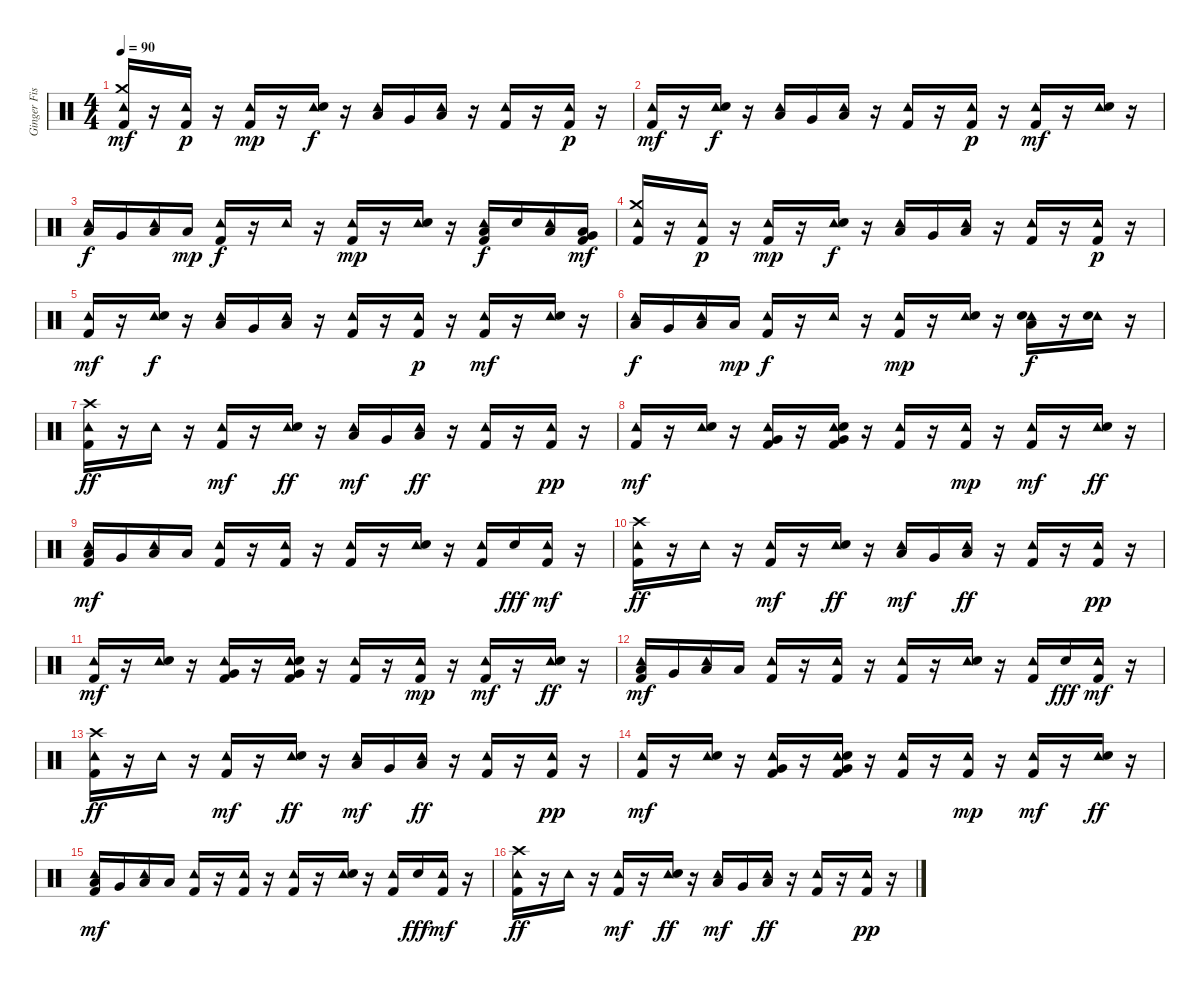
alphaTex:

\track ("Ginger Fish" "Ginger Fis") {instrument percussion}
\staff {score}
\articulation defaults
\ts (4 4)
\tempo 90
\clef neutral
\ks c
("Tambourine (hit)" "Crash medium (hit)" "Kick (hit) 2").16{dy mf} r.16 ("Tambourine (hit)" "Kick (hit) 2").16{dy p} r.16 ("Tambourine (hit)" "Kick (hit) 2").16{dy mp} r.16 ("Tambourine (hit)" "Electric Snare (hit)").16{dy f} r.16 ("Tambourine (hit)" "Low Floor Tom (hit)").16 "Very Low Tom (hit)".16 ("Tambourine (hit)" "Low Floor Tom (hit)").16 r.16 ("Tambourine (hit)" "Kick (hit) 2").16 r.16 ("Tambourine (hit)" "Kick (hit) 2").16{dy p} r.16 |
("Tambourine (hit)" "Kick (hit) 2").16{dy mf} r.16 ("Tambourine (hit)" "Electric Snare (hit)").16{dy f} r.16 ("Tambourine (hit)" "Low Floor Tom (hit)").16 "Very Low Tom (hit)".16 ("Tambourine (hit)" "Low Floor Tom (hit)").16 r.16 ("Tambourine (hit)" "Kick (hit) 2").16 r.16 ("Tambourine (hit)" "Kick (hit) 2").16{dy p} r.16 ("Tambourine (hit)" "Kick (hit) 2").16{dy mf} r.16 ("Tambourine (hit)" "Electric Snare (hit)").16 r.16 |
("Tambourine (hit)" "Low Floor Tom (hit)").16{dy f} "Very Low Tom (hit)".16 ("Tambourine (hit)" "Low Floor Tom (hit)").16 "Low Tom (hit)".16{dy mp} ("Tambourine (hit)" "Kick (hit) 2").16{dy f} r.16 "Tambourine (hit)".16 r.16 ("Tambourine (hit)" "Kick (hit) 2").16{dy mp} r.16 ("Tambourine (hit)" "Electric Snare (hit)").16 r.16 ("Tambourine (hit)" "Kick (hit) 2" "Low Floor Tom (hit)").16{dy f} "Electric Snare (hit)".16 ("Tambourine (hit)" "Low Floor Tom (hit)").16 ("Kick (hit) 2" "Low Tom (hit)" "Very Low Tom (hit)").16{dy mf} |
("Tambourine (hit)" "Crash medium (hit)" "Kick (hit) 2").16 r.16 ("Tambourine (hit)" "Kick (hit) 2").16{dy p} r.16 ("Tambourine (hit)" "Kick (hit) 2").16{dy mp} r.16 ("Tambourine (hit)" "Electric Snare (hit)").16{dy f} r.16 ("Tambourine (hit)" "Low Floor Tom (hit)").16 "Very Low Tom (hit)".16 ("Tambourine (hit)" "Low Floor Tom (hit)").16 r.16 ("Tambourine (hit)" "Kick (hit) 2").16 r.16 ("Tambourine (hit)" "Kick (hit) 2").16{dy p} r.16 |
("Tambourine (hit)" "Kick (hit) 2").16{dy mf} r.16 ("Tambourine (hit)" "Electric Snare (hit)").16{dy f} r.16 ("Tambourine (hit)" "Low Floor Tom (hit)").16 "Very Low Tom (hit)".16 ("Tambourine (hit)" "Low Floor Tom (hit)").16 r.16 ("Tambourine (hit)" "Kick (hit) 2").16 r.16 ("Tambourine (hit)" "Kick (hit) 2").16{dy p} r.16 ("Tambourine (hit)" "Kick (hit) 2").16{dy mf} r.16 ("Tambourine (hit)" "Electric Snare (hit)").16 r.16 |
("Tambourine (hit)" "Low Floor Tom (hit)").16{dy f} "Very Low Tom (hit)".16 ("Tambourine (hit)" "Low Floor Tom (hit)").16 "Low Tom (hit)".16{dy mp} ("Tambourine (hit)" "Kick (hit) 2").16{dy f} r.16 "Tambourine (hit)".16 r.16 ("Tambourine (hit)" "Kick (hit) 2").16{dy mp} r.16 ("Tambourine (hit)" "Electric Snare (hit)").16 r.16 ("Tambourine (hit)" "Electric Snare (hit)" "Low Floor Tom (hit)").16{dy f} r.16 ("Tambourine (hit)" "Electric Snare (hit)").16 r.16 |
("Tambourine (hit)" "Crash high (hit)" "Kick (hit) 2").16{dy ff} r.16 "Tambourine (hit)".16 r.16 ("Tambourine (hit)" "Kick (hit) 2").16{dy mf} r.16 ("Tambourine (hit)" "Electric Snare (hit)").16{dy ff} r.16 ("Tambourine (hit)" "Low Floor Tom (hit)").16{dy mf} "Very Low Tom (hit)".16 ("Tambourine (hit)" "Low Floor Tom (hit)").16{dy ff} r.16 ("Tambourine (hit)" "Kick (hit) 2").16 r.16 ("Tambourine (hit)" "Kick (hit) 2").16{dy pp} r.16 |
("Tambourine (hit)" "Kick (hit) 2").16{dy mf} r.16 ("Tambourine (hit)" "Electric Snare (hit)").16 r.16 ("Tambourine (hit)" "Very Low Tom (hit)" "Kick (hit) 2").16 r.16 ("Tambourine (hit)" "Very Low Tom (hit)" "Electric Snare (hit)" "Kick (hit) 2").16 r.16 ("Tambourine (hit)" "Kick (hit) 2").16 r.16 ("Tambourine (hit)" "Kick (hit) 2").16{dy mp} r.16 ("Tambourine (hit)" "Kick (hit) 2").16{dy mf} r.16 ("Tambourine (hit)" "Electric Snare (hit)").16{dy ff} r.16 |
("Tambourine (hit)" "Kick (hit) 2" "Low Floor Tom (hit)").16{dy mf} "Very Low Tom (hit)".16 ("Tambourine (hit)" "Low Floor Tom (hit)").16 "Low Tom (hit)".16 ("Tambourine (hit)" "Kick (hit) 2").16 r.16 ("Tambourine (hit)" "Kick (hit) 2").16 r.16 ("Tambourine (hit)" "Kick (hit) 2").16 r.16 ("Tambourine (hit)" "Electric Snare (hit)").16 r.16 ("Tambourine (hit)" "Kick (hit) 2").16 "Electric Snare (hit)".16{dy fff} ("Tambourine (hit)" "Kick (hit) 2").16{dy mf} r.16 |
("Tambourine (hit)" "Crash high (hit)" "Kick (hit) 2").16{dy ff} r.16 "Tambourine (hit)".16 r.16 ("Tambourine (hit)" "Kick (hit) 2").16{dy mf} r.16 ("Tambourine (hit)" "Electric Snare (hit)").16{dy ff} r.16 ("Tambourine (hit)" "Low Floor Tom (hit)").16{dy mf} "Very Low Tom (hit)".16 ("Tambourine (hit)" "Low Floor Tom (hit)").16{dy ff} r.16 ("Tambourine (hit)" "Kick (hit) 2").16 r.16 ("Tambourine (hit)" "Kick (hit) 2").16{dy pp} r.16 |
("Tambourine (hit)" "Kick (hit) 2").16{dy mf} r.16 ("Tambourine (hit)" "Electric Snare (hit)").16 r.16 ("Tambourine (hit)" "Very Low Tom (hit)" "Kick (hit) 2").16 r.16 ("Tambourine (hit)" "Very Low Tom (hit)" "Electric Snare (hit)" "Kick (hit) 2").16 r.16 ("Tambourine (hit)" "Kick (hit) 2").16 r.16 ("Tambourine (hit)" "Kick (hit) 2").16{dy mp} r.16 ("Tambourine (hit)" "Kick (hit) 2").16{dy mf} r.16 ("Tambourine (hit)" "Electric Snare (hit)").16{dy ff} r.16 |
("Tambourine (hit)" "Kick (hit) 2" "Low Floor Tom (hit)").16{dy mf} "Very Low Tom (hit)".16 ("Tambourine (hit)" "Low Floor Tom (hit)").16 "Low Tom (hit)".16 ("Tambourine (hit)" "Kick (hit) 2").16 r.16 ("Tambourine (hit)" "Kick (hit) 2").16 r.16 ("Tambourine (hit)" "Kick (hit) 2").16 r.16 ("Tambourine (hit)" "Electric Snare (hit)").16 r.16 ("Tambourine (hit)" "Kick (hit) 2").16 "Electric Snare (hit)".16{dy fff} ("Tambourine (hit)" "Kick (hit) 2").16{dy mf} r.16 |
("Tambourine (hit)" "Crash high (hit)" "Kick (hit) 2").16{dy ff} r.16 "Tambourine (hit)".16 r.16 ("Tambourine (hit)" "Kick (hit) 2").16{dy mf} r.16 ("Tambourine (hit)" "Electric Snare (hit)").16{dy ff} r.16 ("Tambourine (hit)" "Low Floor Tom (hit)").16{dy mf} "Very Low Tom (hit)".16 ("Tambourine (hit)" "Low Floor Tom (hit)").16{dy ff} r.16 ("Tambourine (hit)" "Kick (hit) 2").16 r.16 ("Tambourine (hit)" "Kick (hit) 2").16{dy pp} r.16 |
("Tambourine (hit)" "Kick (hit) 2").16{dy mf} r.16 ("Tambourine (hit)" "Electric Snare (hit)").16 r.16 ("Tambourine (hit)" "Very Low Tom (hit)" "Kick (hit) 2").16 r.16 ("Tambourine (hit)" "Very Low Tom (hit)" "Electric Snare (hit)" "Kick (hit) 2").16 r.16 ("Tambourine (hit)" "Kick (hit) 2").16 r.16 ("Tambourine (hit)" "Kick (hit) 2").16{dy mp} r.16 ("Tambourine (hit)" "Kick (hit) 2").16{dy mf} r.16 ("Tambourine (hit)" "Electric Snare (hit)").16{dy ff} r.16 |
("Tambourine (hit)" "Kick (hit) 2" "Low Floor Tom (hit)").16{dy mf} "Very Low Tom (hit)".16 ("Tambourine (hit)" "Low Floor Tom (hit)").16 "Low Tom (hit)".16 ("Tambourine (hit)" "Kick (hit) 2").16 r.16 ("Tambourine (hit)" "Kick (hit) 2").16 r.16 ("Tambourine (hit)" "Kick (hit) 2").16 r.16 ("Tambourine (hit)" "Electric Snare (hit)").16 r.16 ("Tambourine (hit)" "Kick (hit) 2").16 "Electric Snare (hit)".16{dy fff} ("Tambourine (hit)" "Kick (hit) 2").16{dy mf} r.16 |
("Tambourine (hit)" "Crash high (hit)" "Kick (hit) 2").16{dy ff} r.16 "Tambourine (hit)".16 r.16 ("Tambourine (hit)" "Kick (hit) 2").16{dy mf} r.16 ("Tambourine (hit)" "Electric Snare (hit)").16{dy ff} r.16 ("Tambourine (hit)" "Low Floor Tom (hit)").16{dy mf} "Very Low Tom (hit)".16 ("Tambourine (hit)" "Low Floor Tom (hit)").16{dy ff} r.16 ("Tambourine (hit)" "Kick (hit) 2").16 r.16 ("Tambourine (hit)" "Kick (hit) 2").16{dy pp} r.16
